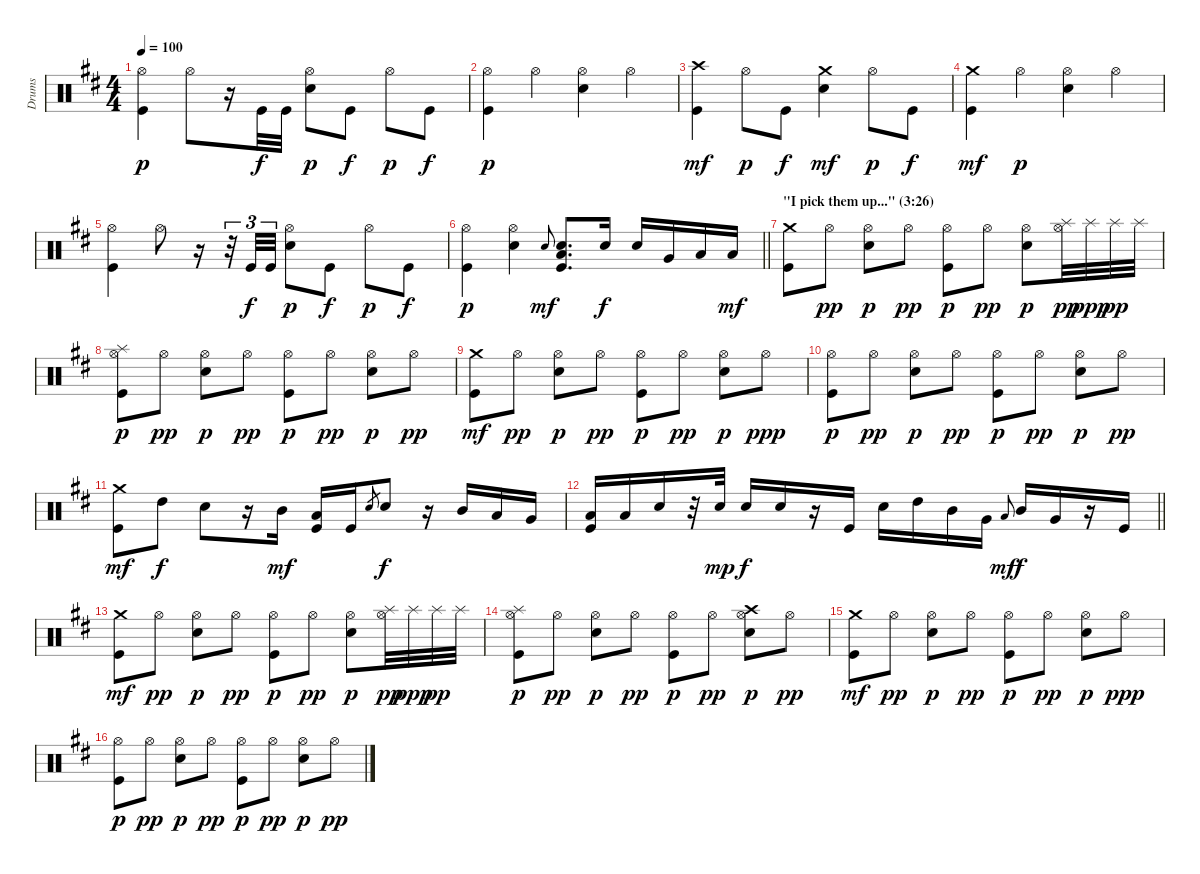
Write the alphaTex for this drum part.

\track ("Drums" "Drums") {instrument percussion}
\staff {score}
\articulation defaults
\ts (4 4)
\tempo 100
\clef neutral
\ks bminor
("Hi-Hat (open)" "Kick (hit)").4{dy p} "Hi-Hat (open)".8 r.16 "Kick (hit)".32{dy f} "Kick (hit)".32 ("Hi-Hat (open)" "Snare (hit) 2").8{dy p} "Kick (hit)".8{dy f} "Hi-Hat (open)".8{dy p} "Kick (hit)".8{dy f} |
("Hi-Hat (open)" "Kick (hit)").4{dy p} "Hi-Hat (open)".4 ("Hi-Hat (open)" "Snare (hit) 2").4 "Hi-Hat (open)".4 |
("Crash high (hit)" "Kick (hit)").4{dy mf} "Hi-Hat (open)".8{dy p} "Kick (hit)".8{dy f} ("Crash medium (hit)" "Snare (hit) 2").4{dy mf} "Hi-Hat (open)".8{dy p} "Kick (hit)".8{dy f} |
("Crash medium (hit)" "Kick (hit)").4{dy mf} "Hi-Hat (open)".4{dy p} ("Hi-Hat (open)" "Snare (hit) 2").4 "Hi-Hat (open)".4 |
("Hi-Hat (open)" "Kick (hit)").4 "Hi-Hat (open)".8 r.16 r.32{tu (3 2)} "Kick (hit)".32{tu (3 2) dy f} "Kick (hit)".32{tu (3 2)} ("Hi-Hat (open)" "Snare (hit) 2").8{dy p} "Kick (hit)".8{dy f} "Hi-Hat (open)".8{dy p} "Kick (hit)".8{dy f} |
\barLineRight lightlight
("Hi-Hat (open)" "Kick (hit)").4{dy p} ("Hi-Hat (open)" "Snare (hit) 2").4 "Snare (hit) 2".8{gr onbeat dy mf} ("Low Tom (hit)" "Snare (hit) 2" "Kick (hit)").8{d} "Snare (hit) 2".16{dy f} "Snare (hit) 2".16 "Very Low Tom (hit)".16 "Low Floor Tom (hit)".16 "Low Floor Tom (hit)".16{dy mf} |
\section ("" "\"I pick them up...\" (3:26)")
("Crash medium (hit)" "Kick (hit)").8 "Hi-Hat (open)".8{dy pp} ("Hi-Hat (open)" "Snare (hit) 2").8{dy p} "Hi-Hat (open)".8{dy pp} ("Hi-Hat (open)" "Kick (hit)").8{dy p} "Hi-Hat (open)".8{dy pp} ("Hi-Hat (open)" "Snare (hit) 2").8{dy p} ("Splash (hit)" "Hi-Hat (open)").32{dy pp} "Splash (hit)".32{dy ppp} "Splash (hit)".32{dy pp} "Splash (hit)".32 |
("Splash (hit)" "Hi-Hat (open)" "Kick (hit)").8{dy p} "Hi-Hat (open)".8{dy pp} ("Hi-Hat (open)" "Snare (hit) 2").8{dy p} "Hi-Hat (open)".8{dy pp} ("Hi-Hat (open)" "Kick (hit)").8{dy p} "Hi-Hat (open)".8{dy pp} ("Hi-Hat (open)" "Snare (hit) 2").8{dy p} "Hi-Hat (open)".8{dy pp} |
("Crash medium (hit)" "Kick (hit)").8{dy mf} "Hi-Hat (open)".8{dy pp} ("Hi-Hat (open)" "Snare (hit) 2").8{dy p} "Hi-Hat (open)".8{dy pp} ("Hi-Hat (open)" "Kick (hit)").8{dy p} "Hi-Hat (open)".8{dy pp} ("Hi-Hat (open)" "Snare (hit) 2").8{dy p} "Hi-Hat (open)".8{dy ppp} |
("Hi-Hat (open)" "Kick (hit)").8{dy p} "Hi-Hat (open)".8{dy pp} ("Hi-Hat (open)" "Snare (hit) 2").8{dy p} "Hi-Hat (open)".8{dy pp} ("Hi-Hat (open)" "Kick (hit)").8{dy p} "Hi-Hat (open)".8{dy pp} ("Hi-Hat (open)" "Snare (hit) 2").8{dy p} "Hi-Hat (open)".8{dy pp} |
("Crash medium (hit)" "Kick (hit)").8{dy mf} "High Tom (hit)".8{dy f} "Snare (hit) 2".8 r.16 "Mid Tom (hit)".16{dy mf} ("Low Floor Tom (hit)" "Kick (hit)").16 "Kick (hit)".16 "Snare (hit) 2".8{gr} "Snare (hit) 2".8{dy f} r.16 "Mid Tom (hit)".16 "Low Tom (hit)".16 "Very Low Tom (hit)".16 |
\barLineRight lightlight
("Low Floor Tom (hit)" "Kick (hit)").16 "Low Floor Tom (hit)".16 "Snare (hit) 2".16 r.32 "Snare (hit) 2".32{dy mp} "Snare (hit) 2".16{dy f} "Snare (hit) 2".16 r.16 "Kick (hit)".16 "Snare (hit) 2".16 "High Tom (hit)".16 "Mid Tom (hit)".16 "Very Low Tom (hit)".16 "Low Tom (hit)".8{gr onbeat dy mf} "Mid Tom (hit)".16{dy f} "Very Low Tom (hit)".16 r.16 "Kick (hit)".16 |
("Crash medium (hit)" "Kick (hit)").8{dy mf} "Hi-Hat (open)".8{dy pp} ("Hi-Hat (open)" "Snare (hit) 2").8{dy p} "Hi-Hat (open)".8{dy pp} ("Hi-Hat (open)" "Kick (hit)").8{dy p} "Hi-Hat (open)".8{dy pp} ("Hi-Hat (open)" "Snare (hit) 2").8{dy p} ("Splash (hit)" "Hi-Hat (open)").32{dy pp} "Splash (hit)".32{dy ppp} "Splash (hit)".32{dy pp} "Splash (hit)".32 |
("Splash (hit)" "Hi-Hat (open)" "Kick (hit)").8{dy p} "Hi-Hat (open)".8{dy pp} ("Hi-Hat (open)" "Snare (hit) 2").8{dy p} "Hi-Hat (open)".8{dy pp} ("Hi-Hat (open)" "Kick (hit)").8{dy p} "Hi-Hat (open)".8{dy pp} ("Crash high (hit)" "Hi-Hat (open)" "Snare (hit) 2").8{dy p} "Hi-Hat (open)".8{dy pp} |
("Crash medium (hit)" "Kick (hit)").8{dy mf} "Hi-Hat (open)".8{dy pp} ("Hi-Hat (open)" "Snare (hit) 2").8{dy p} "Hi-Hat (open)".8{dy pp} ("Hi-Hat (open)" "Kick (hit)").8{dy p} "Hi-Hat (open)".8{dy pp} ("Hi-Hat (open)" "Snare (hit) 2").8{dy p} "Hi-Hat (open)".8{dy ppp} |
("Hi-Hat (open)" "Kick (hit)").8{dy p} "Hi-Hat (open)".8{dy pp} ("Hi-Hat (open)" "Snare (hit) 2").8{dy p} "Hi-Hat (open)".8{dy pp} ("Hi-Hat (open)" "Kick (hit)").8{dy p} "Hi-Hat (open)".8{dy pp} ("Hi-Hat (open)" "Snare (hit) 2").8{dy p} "Hi-Hat (open)".8{dy pp}
